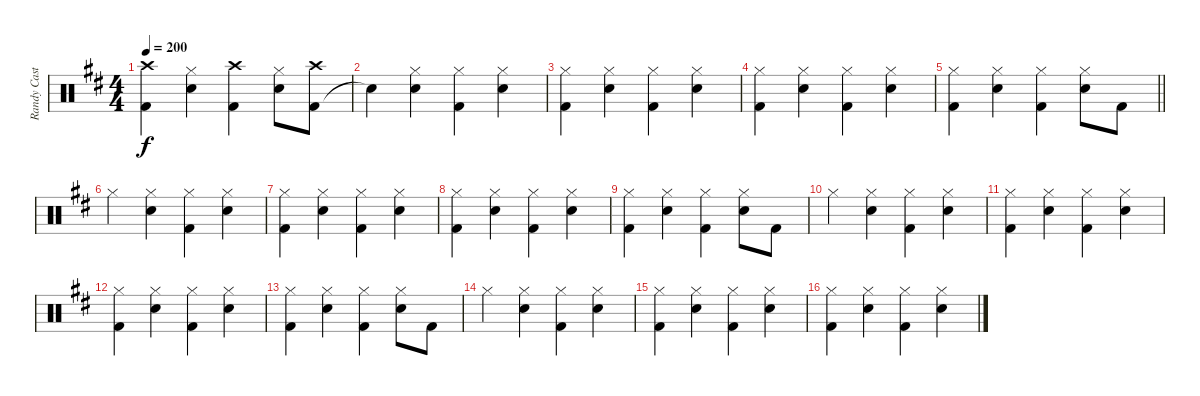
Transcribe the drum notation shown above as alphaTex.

\track ("Randy Castillo" "Randy Cast") {instrument percussion}
\staff {score}
\articulation defaults
\ts (4 4)
\tempo 200
\clef neutral
\ks d
("Kick (hit) 2" "Crash high (hit)").4{dy f} ("Hi-Hat (closed)" "Snare (hit) 2").4 ("Kick (hit) 2" "Crash high (hit)").4 ("Hi-Hat (closed)" "Snare (hit) 2").8 ("Kick (hit) 2" "Crash high (hit)").8 |
"Snare (hit)"{t}.4 ("Hi-Hat (closed)" "Snare (hit) 2").4 ("Hi-Hat (closed)" "Kick (hit) 2").4 ("Hi-Hat (closed)" "Snare (hit) 2").4 |
("Hi-Hat (closed)" "Kick (hit) 2").4 ("Hi-Hat (closed)" "Snare (hit) 2").4 ("Hi-Hat (closed)" "Kick (hit) 2").4 ("Hi-Hat (closed)" "Snare (hit) 2").4 |
("Hi-Hat (closed)" "Kick (hit) 2").4 ("Hi-Hat (closed)" "Snare (hit) 2").4 ("Hi-Hat (closed)" "Kick (hit) 2").4 ("Hi-Hat (closed)" "Snare (hit) 2").4 |
\barLineRight lightlight
("Hi-Hat (closed)" "Kick (hit) 2").4 ("Hi-Hat (closed)" "Snare (hit) 2").4 ("Hi-Hat (closed)" "Kick (hit) 2").4 ("Hi-Hat (closed)" "Snare (hit) 2").8 "Kick (hit) 2".8 |
"Hi-Hat (closed)".4 ("Hi-Hat (closed)" "Snare (hit) 2").4 ("Hi-Hat (closed)" "Kick (hit) 2").4 ("Hi-Hat (closed)" "Snare (hit) 2").4 |
("Hi-Hat (closed)" "Kick (hit) 2").4 ("Hi-Hat (closed)" "Snare (hit) 2").4 ("Hi-Hat (closed)" "Kick (hit) 2").4 ("Hi-Hat (closed)" "Snare (hit) 2").4 |
("Hi-Hat (closed)" "Kick (hit) 2").4 ("Hi-Hat (closed)" "Snare (hit) 2").4 ("Hi-Hat (closed)" "Kick (hit) 2").4 ("Hi-Hat (closed)" "Snare (hit) 2").4 |
("Hi-Hat (closed)" "Kick (hit) 2").4 ("Hi-Hat (closed)" "Snare (hit) 2").4 ("Hi-Hat (closed)" "Kick (hit) 2").4 ("Hi-Hat (closed)" "Snare (hit) 2").8 "Kick (hit) 2".8 |
"Hi-Hat (closed)".4 ("Hi-Hat (closed)" "Snare (hit) 2").4 ("Hi-Hat (closed)" "Kick (hit) 2").4 ("Hi-Hat (closed)" "Snare (hit) 2").4 |
("Hi-Hat (closed)" "Kick (hit) 2").4 ("Hi-Hat (closed)" "Snare (hit) 2").4 ("Hi-Hat (closed)" "Kick (hit) 2").4 ("Hi-Hat (closed)" "Snare (hit) 2").4 |
("Hi-Hat (closed)" "Kick (hit) 2").4 ("Hi-Hat (closed)" "Snare (hit) 2").4 ("Hi-Hat (closed)" "Kick (hit) 2").4 ("Hi-Hat (closed)" "Snare (hit) 2").4 |
("Hi-Hat (closed)" "Kick (hit) 2").4 ("Hi-Hat (closed)" "Snare (hit) 2").4 ("Hi-Hat (closed)" "Kick (hit) 2").4 ("Hi-Hat (closed)" "Snare (hit) 2").8 "Kick (hit) 2".8 |
"Hi-Hat (closed)".4 ("Hi-Hat (closed)" "Snare (hit) 2").4 ("Hi-Hat (closed)" "Kick (hit) 2").4 ("Hi-Hat (closed)" "Snare (hit) 2").4 |
("Hi-Hat (closed)" "Kick (hit) 2").4 ("Hi-Hat (closed)" "Snare (hit) 2").4 ("Hi-Hat (closed)" "Kick (hit) 2").4 ("Hi-Hat (closed)" "Snare (hit) 2").4 |
("Hi-Hat (closed)" "Kick (hit) 2").4 ("Hi-Hat (closed)" "Snare (hit) 2").4 ("Hi-Hat (closed)" "Kick (hit) 2").4 ("Hi-Hat (closed)" "Snare (hit) 2").4
